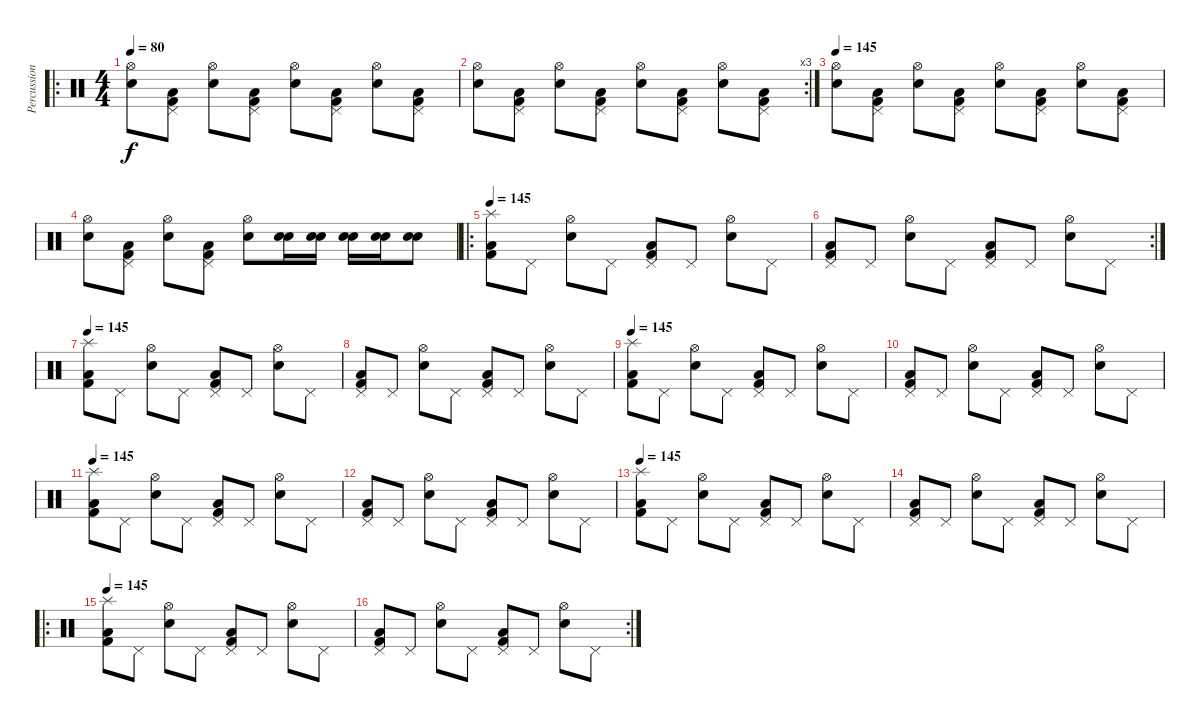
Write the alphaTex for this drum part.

\track ("Percussions" "Percussion") {instrument percussion}
\staff {score}
\articulation defaults
\ro
\ts (4 4)
\tempo 80
\tempo 145
\tempo 80
\clef neutral
\ks c
("Hi-Hat (open)" "Electric Snare (hit)").8{dy f} ("Pedal Hi-Hat (hit)" "Kick (hit) 2" "Low Floor Tom (hit)").8 ("Hi-Hat (open)" "Electric Snare (hit)").8 ("Pedal Hi-Hat (hit)" "Kick (hit) 2" "Low Floor Tom (hit)").8 ("Hi-Hat (open)" "Electric Snare (hit)").8 ("Pedal Hi-Hat (hit)" "Kick (hit) 2" "Low Floor Tom (hit)").8 ("Hi-Hat (open)" "Electric Snare (hit)").8 ("Pedal Hi-Hat (hit)" "Kick (hit) 2" "Low Floor Tom (hit)").8 |
\rc 3
("Hi-Hat (open)" "Electric Snare (hit)").8 ("Pedal Hi-Hat (hit)" "Kick (hit) 2" "Low Floor Tom (hit)").8 ("Hi-Hat (open)" "Electric Snare (hit)").8 ("Pedal Hi-Hat (hit)" "Kick (hit) 2" "Low Floor Tom (hit)").8 ("Hi-Hat (open)" "Electric Snare (hit)").8 ("Pedal Hi-Hat (hit)" "Kick (hit) 2" "Low Floor Tom (hit)").8 ("Hi-Hat (open)" "Electric Snare (hit)").8 ("Pedal Hi-Hat (hit)" "Kick (hit) 2" "Low Floor Tom (hit)").8 |
\tempo 145
("Hi-Hat (open)" "Electric Snare (hit)").8 ("Pedal Hi-Hat (hit)" "Kick (hit) 2" "Low Floor Tom (hit)").8 ("Hi-Hat (open)" "Electric Snare (hit)").8 ("Pedal Hi-Hat (hit)" "Kick (hit) 2" "Low Floor Tom (hit)").8 ("Hi-Hat (open)" "Electric Snare (hit)").8 ("Pedal Hi-Hat (hit)" "Kick (hit) 2" "Low Floor Tom (hit)").8 ("Hi-Hat (open)" "Electric Snare (hit)").8 ("Pedal Hi-Hat (hit)" "Kick (hit) 2" "Low Floor Tom (hit)").8 |
("Hi-Hat (open)" "Electric Snare (hit)").8 ("Pedal Hi-Hat (hit)" "Kick (hit) 2" "Low Floor Tom (hit)").8 ("Hi-Hat (open)" "Electric Snare (hit)").8 ("Pedal Hi-Hat (hit)" "Kick (hit) 2" "Low Floor Tom (hit)").8 ("Hi-Hat (open)" "Electric Snare (hit)").8 ("Electric Snare (hit)" "Snare (hit) 2").16 ("Electric Snare (hit)" "Snare (hit) 2").16 ("Electric Snare (hit)" "Snare (hit) 2").16 ("Electric Snare (hit)" "Snare (hit) 2").16 ("Electric Snare (hit)" "Snare (hit) 2").8 |
\ro
\tempo 145
("Splash (hit)" "Kick (hit) 2" "Low Floor Tom (hit)").8 "Pedal Hi-Hat (hit)".8 ("Hi-Hat (open)" "Electric Snare (hit)").8 "Pedal Hi-Hat (hit)".8 ("Pedal Hi-Hat (hit)" "Kick (hit) 2" "Low Floor Tom (hit)").8 "Pedal Hi-Hat (hit)".8 ("Hi-Hat (open)" "Electric Snare (hit)").8 "Pedal Hi-Hat (hit)".8 |
\rc 2
("Pedal Hi-Hat (hit)" "Kick (hit) 2" "Low Floor Tom (hit)").8 "Pedal Hi-Hat (hit)".8 ("Hi-Hat (open)" "Electric Snare (hit)").8 "Pedal Hi-Hat (hit)".8 ("Pedal Hi-Hat (hit)" "Kick (hit) 2" "Low Floor Tom (hit)").8 "Pedal Hi-Hat (hit)".8 ("Hi-Hat (open)" "Electric Snare (hit)").8 "Pedal Hi-Hat (hit)".8 |
\tempo 145
("Splash (hit)" "Kick (hit) 2" "Low Floor Tom (hit)").8 "Pedal Hi-Hat (hit)".8 ("Hi-Hat (open)" "Electric Snare (hit)").8 "Pedal Hi-Hat (hit)".8 ("Pedal Hi-Hat (hit)" "Kick (hit) 2" "Low Floor Tom (hit)").8 "Pedal Hi-Hat (hit)".8 ("Hi-Hat (open)" "Electric Snare (hit)").8 "Pedal Hi-Hat (hit)".8 |
("Pedal Hi-Hat (hit)" "Kick (hit) 2" "Low Floor Tom (hit)").8 "Pedal Hi-Hat (hit)".8 ("Hi-Hat (open)" "Electric Snare (hit)").8 "Pedal Hi-Hat (hit)".8 ("Pedal Hi-Hat (hit)" "Kick (hit) 2" "Low Floor Tom (hit)").8 "Pedal Hi-Hat (hit)".8 ("Hi-Hat (open)" "Electric Snare (hit)").8 "Pedal Hi-Hat (hit)".8 |
\tempo 145
("Splash (hit)" "Kick (hit) 2" "Low Floor Tom (hit)").8 "Pedal Hi-Hat (hit)".8 ("Hi-Hat (open)" "Electric Snare (hit)").8 "Pedal Hi-Hat (hit)".8 ("Pedal Hi-Hat (hit)" "Kick (hit) 2" "Low Floor Tom (hit)").8 "Pedal Hi-Hat (hit)".8 ("Hi-Hat (open)" "Electric Snare (hit)").8 "Pedal Hi-Hat (hit)".8 |
("Pedal Hi-Hat (hit)" "Kick (hit) 2" "Low Floor Tom (hit)").8 "Pedal Hi-Hat (hit)".8 ("Hi-Hat (open)" "Electric Snare (hit)").8 "Pedal Hi-Hat (hit)".8 ("Pedal Hi-Hat (hit)" "Kick (hit) 2" "Low Floor Tom (hit)").8 "Pedal Hi-Hat (hit)".8 ("Hi-Hat (open)" "Electric Snare (hit)").8 "Pedal Hi-Hat (hit)".8 |
\tempo 145
("Splash (hit)" "Kick (hit) 2" "Low Floor Tom (hit)").8 "Pedal Hi-Hat (hit)".8 ("Hi-Hat (open)" "Electric Snare (hit)").8 "Pedal Hi-Hat (hit)".8 ("Pedal Hi-Hat (hit)" "Kick (hit) 2" "Low Floor Tom (hit)").8 "Pedal Hi-Hat (hit)".8 ("Hi-Hat (open)" "Electric Snare (hit)").8 "Pedal Hi-Hat (hit)".8 |
("Pedal Hi-Hat (hit)" "Kick (hit) 2" "Low Floor Tom (hit)").8 "Pedal Hi-Hat (hit)".8 ("Hi-Hat (open)" "Electric Snare (hit)").8 "Pedal Hi-Hat (hit)".8 ("Pedal Hi-Hat (hit)" "Kick (hit) 2" "Low Floor Tom (hit)").8 "Pedal Hi-Hat (hit)".8 ("Hi-Hat (open)" "Electric Snare (hit)").8 "Pedal Hi-Hat (hit)".8 |
\tempo 145
("Splash (hit)" "Kick (hit) 2" "Low Floor Tom (hit)").8 "Pedal Hi-Hat (hit)".8 ("Hi-Hat (open)" "Electric Snare (hit)").8 "Pedal Hi-Hat (hit)".8 ("Pedal Hi-Hat (hit)" "Kick (hit) 2" "Low Floor Tom (hit)").8 "Pedal Hi-Hat (hit)".8 ("Hi-Hat (open)" "Electric Snare (hit)").8 "Pedal Hi-Hat (hit)".8 |
("Pedal Hi-Hat (hit)" "Kick (hit) 2" "Low Floor Tom (hit)").8 "Pedal Hi-Hat (hit)".8 ("Hi-Hat (open)" "Electric Snare (hit)").8 "Pedal Hi-Hat (hit)".8 ("Pedal Hi-Hat (hit)" "Kick (hit) 2" "Low Floor Tom (hit)").8 "Pedal Hi-Hat (hit)".8 ("Hi-Hat (open)" "Electric Snare (hit)").8 "Pedal Hi-Hat (hit)".8 |
\ro
\tempo 145
("Splash (hit)" "Kick (hit) 2" "Low Floor Tom (hit)").8 "Pedal Hi-Hat (hit)".8 ("Hi-Hat (open)" "Electric Snare (hit)").8 "Pedal Hi-Hat (hit)".8 ("Pedal Hi-Hat (hit)" "Kick (hit) 2" "Low Floor Tom (hit)").8 "Pedal Hi-Hat (hit)".8 ("Hi-Hat (open)" "Electric Snare (hit)").8 "Pedal Hi-Hat (hit)".8 |
\rc 2
("Pedal Hi-Hat (hit)" "Kick (hit) 2" "Low Floor Tom (hit)").8 "Pedal Hi-Hat (hit)".8 ("Hi-Hat (open)" "Electric Snare (hit)").8 "Pedal Hi-Hat (hit)".8 ("Pedal Hi-Hat (hit)" "Kick (hit) 2" "Low Floor Tom (hit)").8 "Pedal Hi-Hat (hit)".8 ("Hi-Hat (open)" "Electric Snare (hit)").8 "Pedal Hi-Hat (hit)".8
